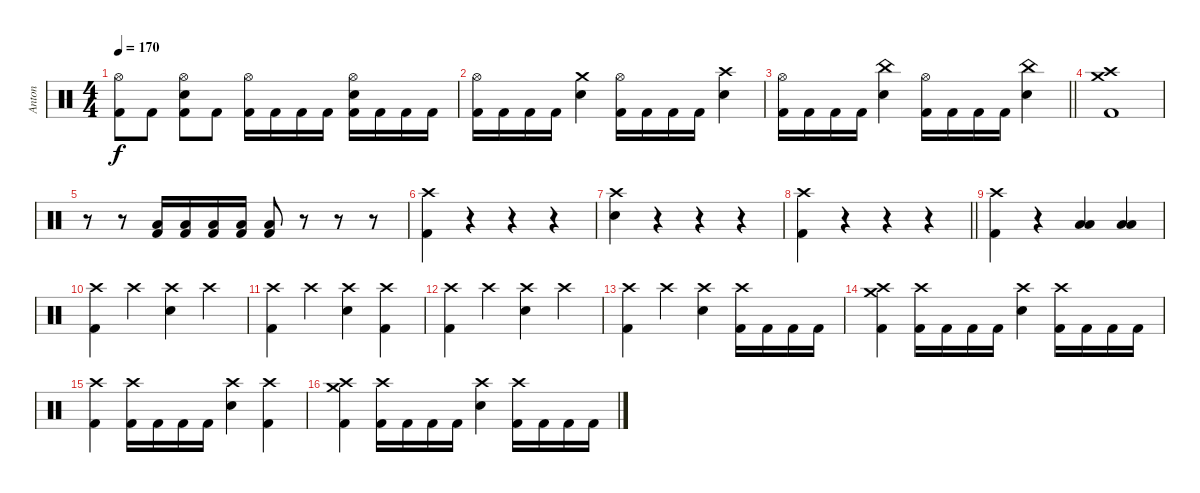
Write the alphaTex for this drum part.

\track ("Anton" "Anton") {instrument percussion}
\staff
\articulation defaults
\ts (4 4)
\tempo 170
\clef neutral
\ks c
("Hi-Hat (open)" "Kick (hit) 2").8{dy f} "Kick (hit) 2".8 ("Hi-Hat (open)" "Electric Snare (hit)" "Kick (hit) 2").8 "Kick (hit) 2".8 ("Hi-Hat (open)" "Kick (hit) 2").16 "Kick (hit) 2".16 "Kick (hit) 2".16 "Kick (hit) 2".16 ("Hi-Hat (open)" "Electric Snare (hit)" "Kick (hit) 2").16 "Kick (hit) 2".16 "Kick (hit) 2".16 "Kick (hit) 2".16 |
("Hi-Hat (open)" "Kick (hit) 2").16 "Kick (hit) 2".16 "Kick (hit) 2".16 "Kick (hit) 2".16 ("Crash medium (hit)" "Electric Snare (hit)").4 ("Hi-Hat (open)" "Kick (hit) 2").16 "Kick (hit) 2".16 "Kick (hit) 2".16 "Kick (hit) 2".16 ("Crash high (hit)" "Electric Snare (hit)").4 |
\barLineRight lightlight
("Hi-Hat (open)" "Kick (hit) 2").16 "Kick (hit) 2".16 "Kick (hit) 2".16 "Kick (hit) 2".16 ("China (hit)" "Electric Snare (hit)").4 ("Hi-Hat (open)" "Kick (hit) 2").16 "Kick (hit) 2".16 "Kick (hit) 2".16 "Kick (hit) 2".16 ("China (hit)" "Electric Snare (hit)").4 |
("Crash medium (hit)" "Crash high (hit)" "Kick (hit) 2").1 |
r.8 r.8 ("Low Floor Tom (hit)" "Kick (hit) 2").16 ("Low Floor Tom (hit)" "Kick (hit) 2").16 ("Low Floor Tom (hit)" "Kick (hit) 2").16 ("Low Floor Tom (hit)" "Kick (hit) 2").16 ("Low Floor Tom (hit)" "Kick (hit) 2").8 r.8 r.8 r.8 |
("Crash high (hit)" "Kick (hit) 2").4 r.4 r.4 r.4 |
("Crash high (hit)" "Electric Snare (hit)").4 r.4 r.4 r.4 |
\barLineRight lightlight
("Crash high (hit)" "Kick (hit) 2").4 r.4 r.4 r.4 |
("Crash high (hit)" "Kick (hit) 2").4 r.4 ("Low Tom (hit)" "Low Floor Tom (hit)").4 ("Low Tom (hit)" "Low Floor Tom (hit)").4 |
("Crash high (hit)" "Kick (hit) 2").4 "Crash high (hit)".4 ("Crash high (hit)" "Electric Snare (hit)").4 "Crash high (hit)".4 |
("Crash high (hit)" "Kick (hit) 2").4 "Crash high (hit)".4 ("Crash high (hit)" "Electric Snare (hit)").4 ("Crash high (hit)" "Kick (hit) 2").4 |
("Crash high (hit)" "Kick (hit) 2").4 "Crash high (hit)".4 ("Crash high (hit)" "Electric Snare (hit)").4 "Crash high (hit)".4 |
("Crash high (hit)" "Kick (hit) 2").4 "Crash high (hit)".4 ("Crash high (hit)" "Electric Snare (hit)").4 ("Crash high (hit)" "Kick (hit) 2").16 "Kick (hit) 2".16 "Kick (hit) 2".16 "Kick (hit) 2".16 |
("Crash high (hit)" "Crash medium (hit)" "Kick (hit) 2").4 ("Crash high (hit)" "Kick (hit) 2").16 "Kick (hit) 2".16 "Kick (hit) 2".16 "Kick (hit) 2".16 ("Crash high (hit)" "Electric Snare (hit)").4 ("Crash high (hit)" "Kick (hit) 2").16 "Kick (hit) 2".16 "Kick (hit) 2".16 "Kick (hit) 2".16 |
("Crash high (hit)" "Kick (hit) 2").4 ("Crash high (hit)" "Kick (hit) 2").16 "Kick (hit) 2".16 "Kick (hit) 2".16 "Kick (hit) 2".16 ("Crash high (hit)" "Electric Snare (hit)").4 ("Crash high (hit)" "Kick (hit) 2").4 |
("Crash high (hit)" "Crash medium (hit)" "Kick (hit) 2").4 ("Crash high (hit)" "Kick (hit) 2").16 "Kick (hit) 2".16 "Kick (hit) 2".16 "Kick (hit) 2".16 ("Crash high (hit)" "Electric Snare (hit)").4 ("Crash high (hit)" "Kick (hit) 2").16 "Kick (hit) 2".16 "Kick (hit) 2".16 "Kick (hit) 2".16
